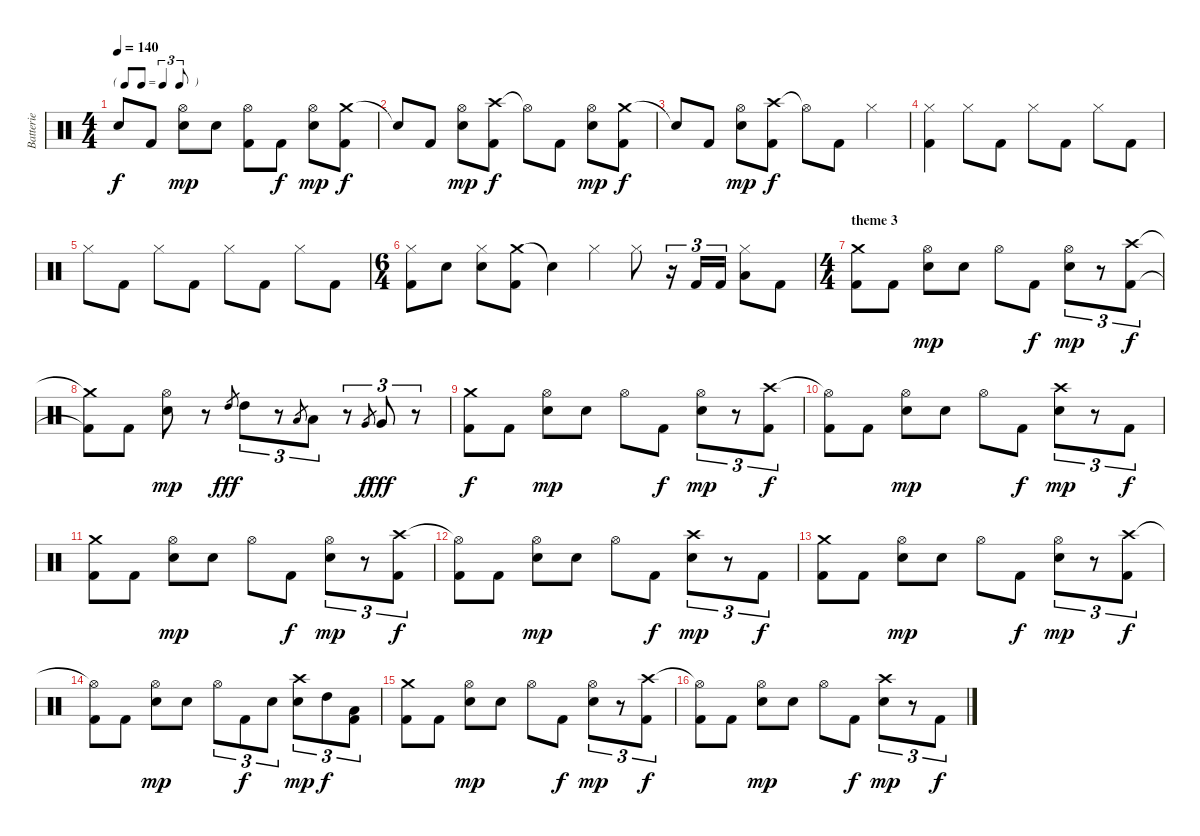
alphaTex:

\track ("Batterie" "Batterie") {instrument percussion}
\staff {score}
\articulation defaults
\ts (4 4)
\tf triplet8th
\tempo 140
\clef neutral
\ks c "Snare (hit)"{t}.8{dy f} "Kick (hit) 2".8
("Hi-Hat (open)" "Electric Snare (hit)").8{dy mp} "Electric Snare (hit)".8 ("Hi-Hat (open)" "Kick (hit) 2").8 "Kick (hit) 2".8{dy f} ("Hi-Hat (open)" "Electric Snare (hit)").8{dy mp} ("Crash medium (hit)" "Kick (hit) 2").8{dy f} |
"Snare (hit)"{t}.8 "Kick (hit) 2".8 ("Hi-Hat (open)" "Electric Snare (hit)").8{dy mp} ("Crash high (hit)" "Kick (hit) 2").8{dy f} "Hi-Hat (open)"{t}.8 "Kick (hit) 2".8 ("Hi-Hat (open)" "Electric Snare (hit)").8{dy mp} ("Crash medium (hit)" "Kick (hit) 2").8{dy f} |
"Snare (hit)"{t}.8 "Kick (hit) 2".8 ("Hi-Hat (open)" "Electric Snare (hit)").8{dy mp} ("Crash high (hit)" "Kick (hit) 2").8{dy f} "Hi-Hat (open)"{t}.8 "Kick (hit) 2".8 "Hi-Hat (closed)".4 |
("Hi-Hat (closed)" "Kick (hit) 2").4 "Hi-Hat (closed)".8 "Kick (hit) 2".8 "Hi-Hat (closed)".8 "Kick (hit) 2".8 "Hi-Hat (closed)".8 "Kick (hit) 2".8 |
"Hi-Hat (closed)".8 "Kick (hit) 2".8 "Hi-Hat (closed)".8 "Kick (hit) 2".8 "Hi-Hat (closed)".8 "Kick (hit) 2".8 "Hi-Hat (closed)".8 "Kick (hit) 2".8 |
\ts (6 4)
("Hi-Hat (closed)" "Kick (hit) 2").8 "Electric Snare (hit)".8 ("Hi-Hat (closed)" "Electric Snare (hit)").8 ("Crash medium (hit)" "Kick (hit) 2").8 "Snare (hit)"{t}.4 "Hi-Hat (closed)".4 "Hi-Hat (closed)".8 r.16{tu (3 2)} "Kick (hit) 2".16{tu (3 2)} "Kick (hit) 2".16{tu (3 2)} ("Hi-Hat (closed)" "Low Tom (hit)").8 "Kick (hit) 2".8 |
\ts (4 4)
\section ("" "theme 3")
("Crash medium (hit)" "Kick (hit) 2").8 "Kick (hit) 2".8 ("Hi-Hat (open)" "Electric Snare (hit)").8{dy mp} "Electric Snare (hit)".8 "Hi-Hat (open)".8 "Kick (hit) 2".8{dy f} ("Hi-Hat (open)" "Electric Snare (hit)").8{tu (3 2) dy mp} r.8{tu (3 2)} ("Crash high (hit)" "Kick (hit) 2").8{tu (3 2) dy f} |
("Crash medium (hit)"{t} "Kick (hit) 2"{t}).8 "Kick (hit) 2".8 ("Hi-Hat (open)" "Electric Snare (hit)").8{dy mp} r.8 "High Tom (hit)".8{gr dy fff} "High Tom (hit)".8{tu (3 2)} r.8{tu (3 2)} "Low Tom (hit)".8{gr} "Low Tom (hit)".8{tu (3 2)} r.8{tu (3 2)} "Very Low Tom (hit)".8{gr dy f} "Very Low Tom (hit)".8{tu (3 2) dy fff} r.8{tu (3 2)} |
("Crash medium (hit)" "Kick (hit) 2").8{dy f} "Kick (hit) 2".8 ("Hi-Hat (open)" "Electric Snare (hit)").8{dy mp} "Electric Snare (hit)".8 "Hi-Hat (open)".8 "Kick (hit) 2".8{dy f} ("Hi-Hat (open)" "Electric Snare (hit)").8{tu (3 2) dy mp} r.8{tu (3 2)} ("Crash high (hit)" "Kick (hit) 2").8{tu (3 2) dy f} |
("Hi-Hat (open)"{t} "Kick (hit) 2").8 "Kick (hit) 2".8 ("Hi-Hat (open)" "Electric Snare (hit)").8{dy mp} "Electric Snare (hit)".8 "Hi-Hat (open)".8 "Kick (hit) 2".8{dy f} ("Crash high (hit)" "Electric Snare (hit)").8{tu (3 2) dy mp} r.8{tu (3 2)} "Kick (hit) 2".8{tu (3 2) dy f} |
("Crash medium (hit)" "Kick (hit) 2").8 "Kick (hit) 2".8 ("Hi-Hat (open)" "Electric Snare (hit)").8{dy mp} "Electric Snare (hit)".8 "Hi-Hat (open)".8 "Kick (hit) 2".8{dy f} ("Hi-Hat (open)" "Electric Snare (hit)").8{tu (3 2) dy mp} r.8{tu (3 2)} ("Crash high (hit)" "Kick (hit) 2").8{tu (3 2) dy f} |
("Hi-Hat (open)"{t} "Kick (hit) 2").8 "Kick (hit) 2".8 ("Hi-Hat (open)" "Electric Snare (hit)").8{dy mp} "Electric Snare (hit)".8 "Hi-Hat (open)".8 "Kick (hit) 2".8{dy f} ("Crash high (hit)" "Electric Snare (hit)").8{tu (3 2) dy mp} r.8{tu (3 2)} "Kick (hit) 2".8{tu (3 2) dy f} |
("Crash medium (hit)" "Kick (hit) 2").8 "Kick (hit) 2".8 ("Hi-Hat (open)" "Electric Snare (hit)").8{dy mp} "Electric Snare (hit)".8 "Hi-Hat (open)".8 "Kick (hit) 2".8{dy f} ("Hi-Hat (open)" "Electric Snare (hit)").8{tu (3 2) dy mp} r.8{tu (3 2)} ("Crash high (hit)" "Kick (hit) 2").8{tu (3 2) dy f} |
("Hi-Hat (open)"{t} "Kick (hit) 2").8 "Kick (hit) 2".8 ("Hi-Hat (open)" "Electric Snare (hit)").8{dy mp} "Electric Snare (hit)".8 "Hi-Hat (open)".8{tu (3 2)} "Kick (hit) 2".8{tu (3 2) dy f} "Electric Snare (hit)".8{tu (3 2)} ("Crash high (hit)" "Electric Snare (hit)").8{tu (3 2) dy mp} "High Tom (hit)".8{tu (3 2) dy f} ("Low Tom (hit)" "Kick (hit) 2").8{tu (3 2)} |
("Crash medium (hit)" "Kick (hit) 2").8 "Kick (hit) 2".8 ("Hi-Hat (open)" "Electric Snare (hit)").8{dy mp} "Electric Snare (hit)".8 "Hi-Hat (open)".8 "Kick (hit) 2".8{dy f} ("Hi-Hat (open)" "Electric Snare (hit)").8{tu (3 2) dy mp} r.8{tu (3 2)} ("Crash high (hit)" "Kick (hit) 2").8{tu (3 2) dy f} |
("Hi-Hat (open)"{t} "Kick (hit) 2").8 "Kick (hit) 2".8 ("Hi-Hat (open)" "Electric Snare (hit)").8{dy mp} "Electric Snare (hit)".8 "Hi-Hat (open)".8 "Kick (hit) 2".8{dy f} ("Crash high (hit)" "Electric Snare (hit)").8{tu (3 2) dy mp} r.8{tu (3 2)} "Kick (hit) 2".8{tu (3 2) dy f}
